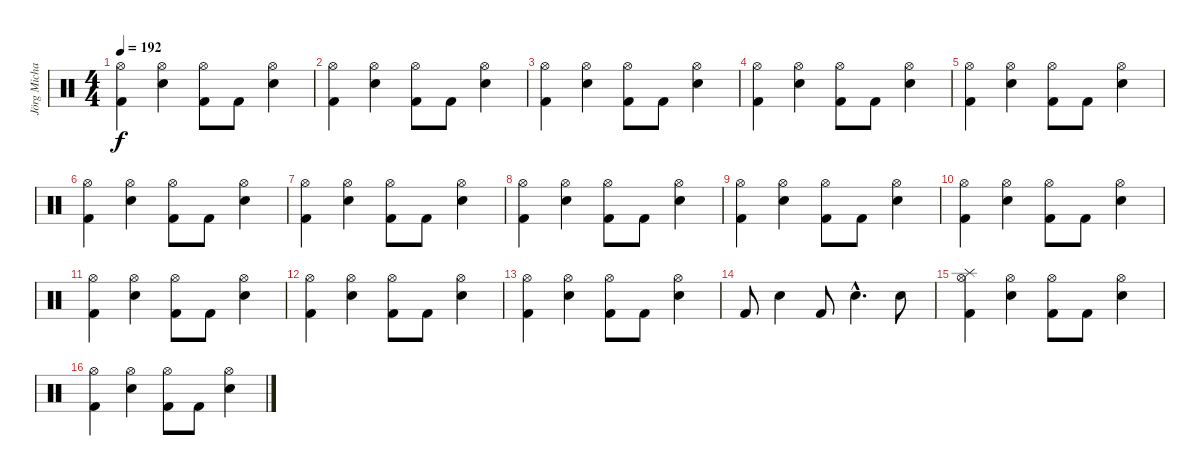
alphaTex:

\track ("Jörg Michael" "Jörg Micha") {instrument percussion}
\staff {score}
\articulation defaults
\ts (4 4)
\tempo 192
\clef neutral
\ks c
("Hi-Hat (open)" "Kick (hit) 2").4{dy f} ("Hi-Hat (open)" "Electric Snare (hit)").4 ("Hi-Hat (open)" "Kick (hit) 2").8 "Kick (hit) 2".8 ("Hi-Hat (open)" "Electric Snare (hit)").4 |
("Hi-Hat (open)" "Kick (hit) 2").4 ("Hi-Hat (open)" "Electric Snare (hit)").4 ("Hi-Hat (open)" "Kick (hit) 2").8 "Kick (hit) 2".8 ("Hi-Hat (open)" "Electric Snare (hit)").4 |
("Hi-Hat (open)" "Kick (hit) 2").4 ("Hi-Hat (open)" "Electric Snare (hit)").4 ("Hi-Hat (open)" "Kick (hit) 2").8 "Kick (hit) 2".8 ("Hi-Hat (open)" "Electric Snare (hit)").4 |
("Hi-Hat (open)" "Kick (hit) 2").4 ("Hi-Hat (open)" "Electric Snare (hit)").4 ("Hi-Hat (open)" "Kick (hit) 2").8 "Kick (hit) 2".8 ("Hi-Hat (open)" "Electric Snare (hit)").4 |
("Hi-Hat (open)" "Kick (hit) 2").4 ("Hi-Hat (open)" "Electric Snare (hit)").4 ("Hi-Hat (open)" "Kick (hit) 2").8 "Kick (hit) 2".8 ("Hi-Hat (open)" "Electric Snare (hit)").4 |
("Hi-Hat (open)" "Kick (hit) 2").4 ("Hi-Hat (open)" "Electric Snare (hit)").4 ("Hi-Hat (open)" "Kick (hit) 2").8 "Kick (hit) 2".8 ("Hi-Hat (open)" "Electric Snare (hit)").4 |
("Hi-Hat (open)" "Kick (hit) 2").4 ("Hi-Hat (open)" "Electric Snare (hit)").4 ("Hi-Hat (open)" "Kick (hit) 2").8 "Kick (hit) 2".8 ("Hi-Hat (open)" "Electric Snare (hit)").4 |
("Hi-Hat (open)" "Kick (hit) 2").4 ("Hi-Hat (open)" "Electric Snare (hit)").4 ("Hi-Hat (open)" "Kick (hit) 2").8 "Kick (hit) 2".8 ("Hi-Hat (open)" "Electric Snare (hit)").4 |
("Hi-Hat (open)" "Kick (hit) 2").4 ("Hi-Hat (open)" "Electric Snare (hit)").4 ("Hi-Hat (open)" "Kick (hit) 2").8 "Kick (hit) 2".8 ("Hi-Hat (open)" "Electric Snare (hit)").4 |
("Hi-Hat (open)" "Kick (hit) 2").4 ("Hi-Hat (open)" "Electric Snare (hit)").4 ("Hi-Hat (open)" "Kick (hit) 2").8 "Kick (hit) 2".8 ("Hi-Hat (open)" "Electric Snare (hit)").4 |
("Hi-Hat (open)" "Kick (hit) 2").4 ("Hi-Hat (open)" "Electric Snare (hit)").4 ("Hi-Hat (open)" "Kick (hit) 2").8 "Kick (hit) 2".8 ("Hi-Hat (open)" "Electric Snare (hit)").4 |
("Hi-Hat (open)" "Kick (hit) 2").4 ("Hi-Hat (open)" "Electric Snare (hit)").4 ("Hi-Hat (open)" "Kick (hit) 2").8 "Kick (hit) 2".8 ("Hi-Hat (open)" "Electric Snare (hit)").4 |
("Hi-Hat (open)" "Kick (hit) 2").4 ("Hi-Hat (open)" "Electric Snare (hit)").4 ("Hi-Hat (open)" "Kick (hit) 2").8 "Kick (hit) 2".8 ("Hi-Hat (open)" "Electric Snare (hit)").4 |
"Kick (hit) 2".8 "Electric Snare (hit)".4 "Kick (hit) 2".8 "Electric Snare (hit)"{hac}.4{d} "Electric Snare (hit)".8 |
("Splash (hit)" "Hi-Hat (open)" "Kick (hit) 2").4 ("Hi-Hat (open)" "Electric Snare (hit)").4 ("Hi-Hat (open)" "Kick (hit) 2").8 "Kick (hit) 2".8 ("Hi-Hat (open)" "Electric Snare (hit)").4 |
("Hi-Hat (open)" "Kick (hit) 2").4 ("Hi-Hat (open)" "Electric Snare (hit)").4 ("Hi-Hat (open)" "Kick (hit) 2").8 "Kick (hit) 2".8 ("Hi-Hat (open)" "Electric Snare (hit)").4
